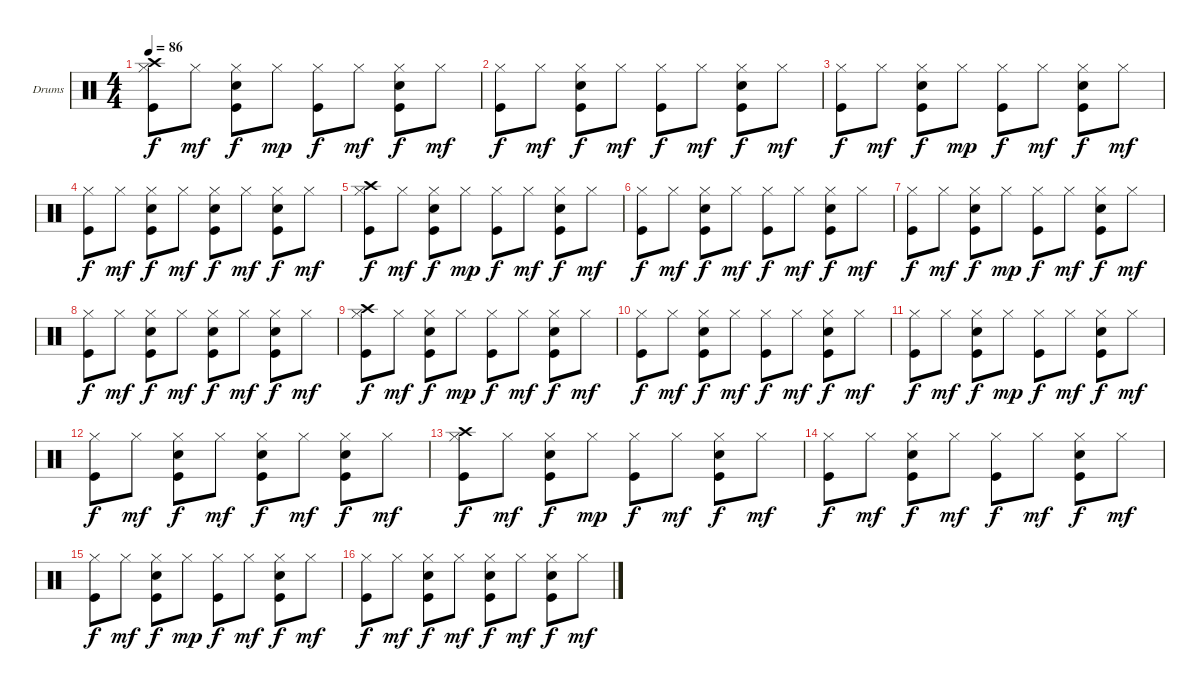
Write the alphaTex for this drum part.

\bracketExtendMode groupsimilarinstruments
\firstSystemTrackNameOrientation horizontal
\otherSystemsTrackNameOrientation horizontal
\track ("Ударные" "Drums") {instrument percussion}
\staff {score}
\articulation defaults
\ts (4 4)
\tempo 86
\clef neutral
\ks c
("Hi-Hat (closed)" "Crash high (hit)" "Kick (hit)").8{dy f} "Hi-Hat (closed)".8{dy mf} ("Snare (hit) 2" "Hi-Hat (closed)" "Kick (hit)").8{dy f} "Hi-Hat (closed)".8{dy mp} ("Hi-Hat (closed)" "Kick (hit)").8{dy f} "Hi-Hat (closed)".8{dy mf} ("Snare (hit) 2" "Hi-Hat (closed)" "Kick (hit)").8{dy f} "Hi-Hat (closed)".8{dy mf} |
("Hi-Hat (closed)" "Kick (hit)").8{dy f} "Hi-Hat (closed)".8{dy mf} ("Snare (hit) 2" "Hi-Hat (closed)" "Kick (hit)").8{dy f} "Hi-Hat (closed)".8{dy mf} ("Hi-Hat (closed)" "Kick (hit)").8{dy f} "Hi-Hat (closed)".8{dy mf} ("Snare (hit) 2" "Hi-Hat (closed)" "Kick (hit)").8{dy f} "Hi-Hat (closed)".8{dy mf} |
("Hi-Hat (closed)" "Kick (hit)").8{dy f} "Hi-Hat (closed)".8{dy mf} ("Snare (hit) 2" "Hi-Hat (closed)" "Kick (hit)").8{dy f} "Hi-Hat (closed)".8{dy mp} ("Hi-Hat (closed)" "Kick (hit)").8{dy f} "Hi-Hat (closed)".8{dy mf} ("Snare (hit) 2" "Hi-Hat (closed)" "Kick (hit)").8{dy f} "Hi-Hat (closed)".8{dy mf} |
("Hi-Hat (closed)" "Kick (hit)").8{dy f} "Hi-Hat (closed)".8{dy mf} ("Snare (hit) 2" "Hi-Hat (closed)" "Kick (hit)").8{dy f} "Hi-Hat (closed)".8{dy mf} ("Hi-Hat (closed)" "Kick (hit)" "Snare (hit) 2").8{dy f} "Hi-Hat (closed)".8{dy mf} ("Snare (hit) 2" "Hi-Hat (closed)" "Kick (hit)").8{dy f} "Hi-Hat (closed)".8{dy mf} |
("Hi-Hat (closed)" "Crash high (hit)" "Kick (hit)").8{dy f} "Hi-Hat (closed)".8{dy mf} ("Snare (hit) 2" "Hi-Hat (closed)" "Kick (hit)").8{dy f} "Hi-Hat (closed)".8{dy mp} ("Hi-Hat (closed)" "Kick (hit)").8{dy f} "Hi-Hat (closed)".8{dy mf} ("Snare (hit) 2" "Hi-Hat (closed)" "Kick (hit)").8{dy f} "Hi-Hat (closed)".8{dy mf} |
("Hi-Hat (closed)" "Kick (hit)").8{dy f} "Hi-Hat (closed)".8{dy mf} ("Snare (hit) 2" "Hi-Hat (closed)" "Kick (hit)").8{dy f} "Hi-Hat (closed)".8{dy mf} ("Hi-Hat (closed)" "Kick (hit)").8{dy f} "Hi-Hat (closed)".8{dy mf} ("Snare (hit) 2" "Hi-Hat (closed)" "Kick (hit)").8{dy f} "Hi-Hat (closed)".8{dy mf} |
("Hi-Hat (closed)" "Kick (hit)").8{dy f} "Hi-Hat (closed)".8{dy mf} ("Snare (hit) 2" "Hi-Hat (closed)" "Kick (hit)").8{dy f} "Hi-Hat (closed)".8{dy mp} ("Hi-Hat (closed)" "Kick (hit)").8{dy f} "Hi-Hat (closed)".8{dy mf} ("Snare (hit) 2" "Hi-Hat (closed)" "Kick (hit)").8{dy f} "Hi-Hat (closed)".8{dy mf} |
("Hi-Hat (closed)" "Kick (hit)").8{dy f} "Hi-Hat (closed)".8{dy mf} ("Snare (hit) 2" "Hi-Hat (closed)" "Kick (hit)").8{dy f} "Hi-Hat (closed)".8{dy mf} ("Hi-Hat (closed)" "Kick (hit)" "Snare (hit) 2").8{dy f} "Hi-Hat (closed)".8{dy mf} ("Snare (hit) 2" "Hi-Hat (closed)" "Kick (hit)").8{dy f} "Hi-Hat (closed)".8{dy mf} |
("Hi-Hat (closed)" "Crash high (hit)" "Kick (hit)").8{dy f} "Hi-Hat (closed)".8{dy mf} ("Snare (hit) 2" "Hi-Hat (closed)" "Kick (hit)").8{dy f} "Hi-Hat (closed)".8{dy mp} ("Hi-Hat (closed)" "Kick (hit)").8{dy f} "Hi-Hat (closed)".8{dy mf} ("Snare (hit) 2" "Hi-Hat (closed)" "Kick (hit)").8{dy f} "Hi-Hat (closed)".8{dy mf} |
("Hi-Hat (closed)" "Kick (hit)").8{dy f} "Hi-Hat (closed)".8{dy mf} ("Snare (hit) 2" "Hi-Hat (closed)" "Kick (hit)").8{dy f} "Hi-Hat (closed)".8{dy mf} ("Hi-Hat (closed)" "Kick (hit)").8{dy f} "Hi-Hat (closed)".8{dy mf} ("Snare (hit) 2" "Hi-Hat (closed)" "Kick (hit)").8{dy f} "Hi-Hat (closed)".8{dy mf} |
("Hi-Hat (closed)" "Kick (hit)").8{dy f} "Hi-Hat (closed)".8{dy mf} ("Snare (hit) 2" "Hi-Hat (closed)" "Kick (hit)").8{dy f} "Hi-Hat (closed)".8{dy mp} ("Hi-Hat (closed)" "Kick (hit)").8{dy f} "Hi-Hat (closed)".8{dy mf} ("Snare (hit) 2" "Hi-Hat (closed)" "Kick (hit)").8{dy f} "Hi-Hat (closed)".8{dy mf} |
("Hi-Hat (closed)" "Kick (hit)").8{dy f} "Hi-Hat (closed)".8{dy mf} ("Snare (hit) 2" "Hi-Hat (closed)" "Kick (hit)").8{dy f} "Hi-Hat (closed)".8{dy mf} ("Hi-Hat (closed)" "Kick (hit)" "Snare (hit) 2").8{dy f} "Hi-Hat (closed)".8{dy mf} ("Snare (hit) 2" "Hi-Hat (closed)" "Kick (hit)").8{dy f} "Hi-Hat (closed)".8{dy mf} |
("Hi-Hat (closed)" "Crash high (hit)" "Kick (hit)").8{dy f} "Hi-Hat (closed)".8{dy mf} ("Snare (hit) 2" "Hi-Hat (closed)" "Kick (hit)").8{dy f} "Hi-Hat (closed)".8{dy mp} ("Hi-Hat (closed)" "Kick (hit)").8{dy f} "Hi-Hat (closed)".8{dy mf} ("Snare (hit) 2" "Hi-Hat (closed)" "Kick (hit)").8{dy f} "Hi-Hat (closed)".8{dy mf} |
("Hi-Hat (closed)" "Kick (hit)").8{dy f} "Hi-Hat (closed)".8{dy mf} ("Snare (hit) 2" "Hi-Hat (closed)" "Kick (hit)").8{dy f} "Hi-Hat (closed)".8{dy mf} ("Hi-Hat (closed)" "Kick (hit)").8{dy f} "Hi-Hat (closed)".8{dy mf} ("Snare (hit) 2" "Hi-Hat (closed)" "Kick (hit)").8{dy f} "Hi-Hat (closed)".8{dy mf} |
("Hi-Hat (closed)" "Kick (hit)").8{dy f} "Hi-Hat (closed)".8{dy mf} ("Snare (hit) 2" "Hi-Hat (closed)" "Kick (hit)").8{dy f} "Hi-Hat (closed)".8{dy mp} ("Hi-Hat (closed)" "Kick (hit)").8{dy f} "Hi-Hat (closed)".8{dy mf} ("Snare (hit) 2" "Hi-Hat (closed)" "Kick (hit)").8{dy f} "Hi-Hat (closed)".8{dy mf} |
("Hi-Hat (closed)" "Kick (hit)").8{dy f} "Hi-Hat (closed)".8{dy mf} ("Snare (hit) 2" "Hi-Hat (closed)" "Kick (hit)").8{dy f} "Hi-Hat (closed)".8{dy mf} ("Hi-Hat (closed)" "Kick (hit)" "Snare (hit) 2").8{dy f} "Hi-Hat (closed)".8{dy mf} ("Snare (hit) 2" "Hi-Hat (closed)" "Kick (hit)").8{dy f} "Hi-Hat (closed)".8{dy mf}
